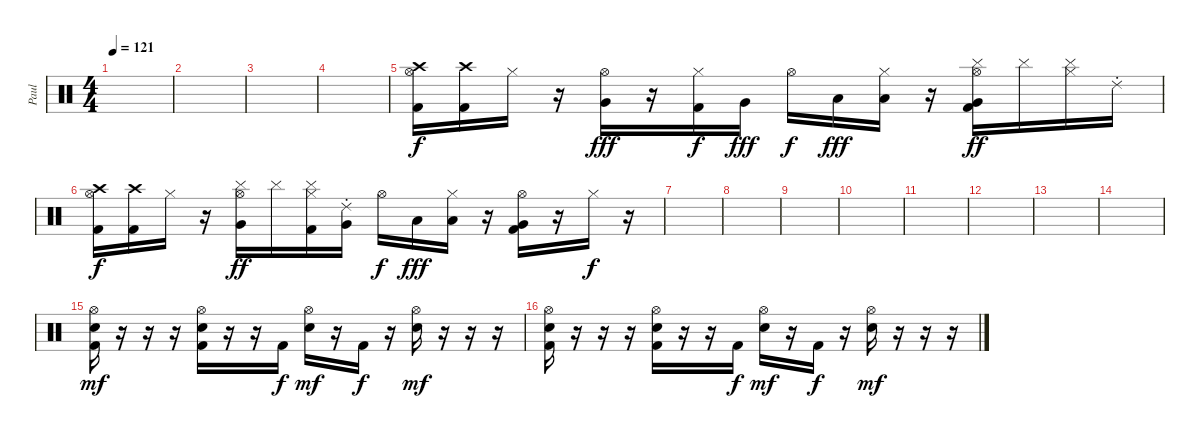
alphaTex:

\track ("Paul" "Paul") {instrument percussion}
\staff {score}
\articulation defaults
\ts (4 4)
\tempo 121
\clef neutral
\ks c
|
|
|
|
("Hi-Hat (open)" "Crash high (hit)" "Kick (hit) 2").16 ("Crash high (hit)" "Kick (hit) 2").16 "Hi-Hat (closed)".16 r.16 ("Hi-Hat (open)" "Very Low Tom (hit)").16{dy fff} r.16 ("Hi-Hat (closed)" "Kick (hit) 2").16{dy f} "Very Low Tom (hit)".16{dy fff} "Hi-Hat (open)".16{dy f} "Low Floor Tom (hit)".16{dy fff} ("Hi-Hat (closed)" "Low Floor Tom (hit)").16 r.16 ("Hi-Hat (open)" "Very Low Tom (hit)" "Cymbal (hit)" "Kick (hit) 2").16{dy ff} "Cymbal (hit)".16 ("Hi-Hat (closed)" "Cymbal (hit)").16 "Ride (choke) 2".16 |
("Hi-Hat (open)" "Crash high (hit)" "Kick (hit) 2").16{dy f} ("Crash high (hit)" "Kick (hit) 2").16 "Hi-Hat (closed)".16 r.16 ("Hi-Hat (open)" "Very Low Tom (hit)" "Cymbal (hit)").16{dy ff} "Cymbal (hit)".16 ("Hi-Hat (closed)" "Cymbal (hit)" "Kick (hit) 2").16 ("Very Low Tom (hit)" "Ride (choke) 2").16 "Hi-Hat (open)".16{dy f} "Low Floor Tom (hit)".16{dy fff} ("Hi-Hat (closed)" "Low Floor Tom (hit)").16 r.16 ("Hi-Hat (open)" "Very Low Tom (hit)" "Kick (hit) 2").16 r.16 "Hi-Hat (closed)".16{dy f} r.16 |
|
|
|
|
|
|
|
|
("Hi-Hat (open)" "Snare (hit) 2" "Kick (hit) 2").16{dy mf} r.16 r.16 r.16 ("Hi-Hat (open)" "Snare (hit) 2" "Kick (hit) 2").16 r.16 r.16 "Kick (hit) 2".16{dy f} ("Hi-Hat (open)" "Snare (hit) 2").16{dy mf} r.16 "Kick (hit) 2".16{dy f} r.16 ("Hi-Hat (open)" "Snare (hit) 2").16{dy mf} r.16 r.16 r.16 |
("Hi-Hat (open)" "Snare (hit) 2" "Kick (hit) 2").16 r.16 r.16 r.16 ("Hi-Hat (open)" "Snare (hit) 2" "Kick (hit) 2").16 r.16 r.16 "Kick (hit) 2".16{dy f} ("Hi-Hat (open)" "Snare (hit) 2").16{dy mf} r.16 "Kick (hit) 2".16{dy f} r.16 ("Hi-Hat (open)" "Snare (hit) 2").16{dy mf} r.16 r.16 r.16
